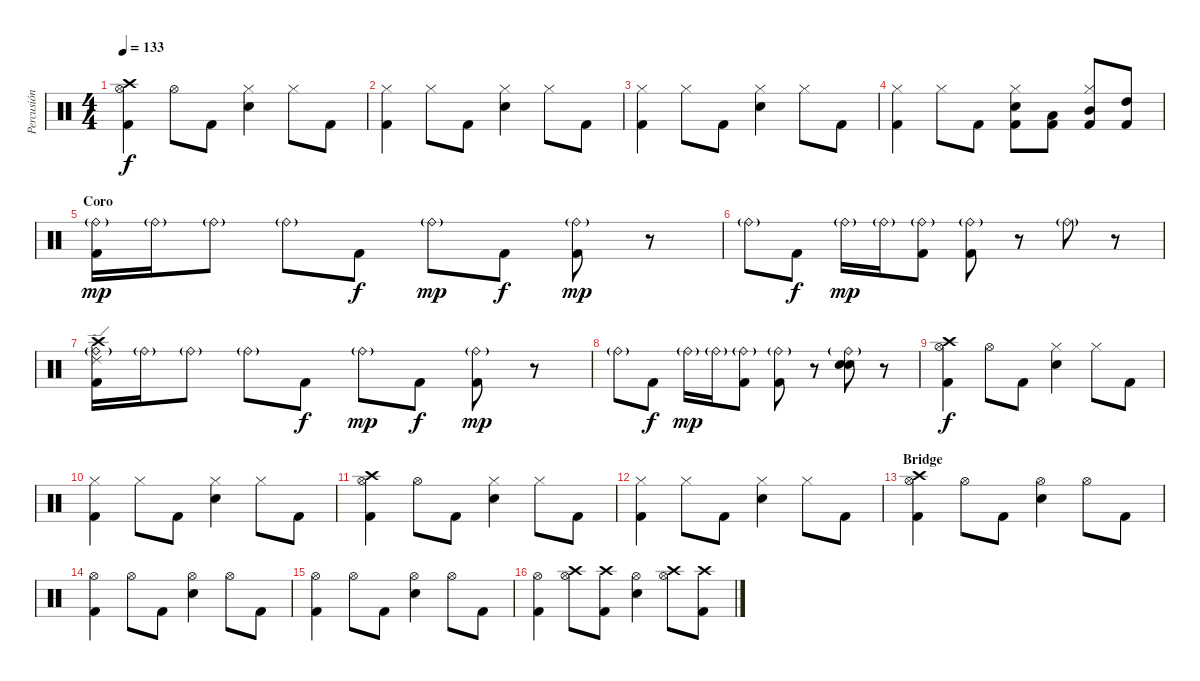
\track ("Percusión" "Percusión") {instrument percussion}
\staff {score}
\articulation defaults
\ts (4 4)
\tempo 133
\clef neutral
\ks c
("Crash high (hit)" "Hi-Hat (open)" "Kick (hit) 2").4{dy f} "Hi-Hat (open)".8 "Kick (hit) 2".8 ("Electric Snare (hit)" "Hi-Hat (closed)").4 "Hi-Hat (closed)".8 "Kick (hit) 2".8 |
("Hi-Hat (closed)" "Kick (hit) 2").4 "Hi-Hat (closed)".8 "Kick (hit) 2".8 ("Electric Snare (hit)" "Hi-Hat (closed)").4 "Hi-Hat (closed)".8 "Kick (hit) 2".8 |
("Hi-Hat (closed)" "Kick (hit) 2").4 "Hi-Hat (closed)".8 "Kick (hit) 2".8 ("Electric Snare (hit)" "Hi-Hat (closed)").4 "Hi-Hat (closed)".8 "Kick (hit) 2".8 |
("Hi-Hat (closed)" "Kick (hit) 2").4 "Hi-Hat (closed)".8 "Kick (hit) 2".8 ("Electric Snare (hit)" "Hi-Hat (closed)" "Kick (hit) 2").8 ("Low Tom (hit)" "Kick (hit) 2").8 ("Mid Tom (hit)" "Hi-Hat (closed)" "Kick (hit) 2").8 ("High Tom (hit)" "Kick (hit) 2").8 |
\section ("" "Coro")
("Ride (bell)"{g} "Kick (hit) 2").16{dy mp} "Ride (bell)"{g}.16 "Ride (bell)"{g}.8 "Ride (bell)"{g}.8 "Kick (hit) 2".8{dy f} "Ride (bell)"{g}.8{dy mp} "Kick (hit) 2".8{dy f} ("Ride (bell)"{g} "Kick (hit) 2").8{dy mp} r.8 |
"Ride (bell)"{g}.8 "Kick (hit) 2".8{dy f} "Ride (bell)"{g}.16{dy mp} "Ride (bell)"{g}.16 ("Ride (bell)"{g} "Kick (hit) 2").8 ("Ride (bell)"{g} "Kick (hit) 2").8 r.8 "Ride (bell)"{g}.8 r.8 |
("Crash high (hit)" "Ride (edge) 2" "Ride (bell)"{g} "Kick (hit) 2").16 "Ride (bell)"{g}.16 "Ride (bell)"{g}.8 "Ride (bell)"{g}.8 "Kick (hit) 2".8{dy f} "Ride (bell)"{g}.8{dy mp} "Kick (hit) 2".8{dy f} ("Ride (bell)"{g} "Kick (hit) 2").8{dy mp} r.8 |
"Ride (bell)"{g}.8 "Kick (hit) 2".8{dy f} "Ride (bell)"{g}.16{dy mp} "Ride (bell)"{g}.16 ("Ride (bell)"{g} "Kick (hit) 2").8 ("Ride (bell)"{g} "Kick (hit) 2").8 r.8 ("Ride (bell)"{g} "Electric Snare (hit)" "Electric Snare (hit)").8 r.8 |
("Crash high (hit)" "Hi-Hat (open)" "Kick (hit) 2").4{dy f} "Hi-Hat (open)".8 "Kick (hit) 2".8 ("Electric Snare (hit)" "Hi-Hat (closed)").4 "Hi-Hat (closed)".8 "Kick (hit) 2".8 |
("Hi-Hat (closed)" "Kick (hit) 2").4 "Hi-Hat (closed)".8 "Kick (hit) 2".8 ("Electric Snare (hit)" "Hi-Hat (closed)").4 "Hi-Hat (closed)".8 "Kick (hit) 2".8 |
("Crash high (hit)" "Hi-Hat (open)" "Kick (hit) 2").4 "Hi-Hat (open)".8 "Kick (hit) 2".8 ("Electric Snare (hit)" "Hi-Hat (closed)").4 "Hi-Hat (closed)".8 "Kick (hit) 2".8 |
("Hi-Hat (closed)" "Kick (hit) 2").4 "Hi-Hat (closed)".8 "Kick (hit) 2".8 ("Electric Snare (hit)" "Hi-Hat (closed)").4 "Hi-Hat (closed)".8 "Kick (hit) 2".8 |
\section ("" "Bridge")
("Crash high (hit)" "Hi-Hat (open)" "Kick (hit) 2").4 "Hi-Hat (open)".8 "Kick (hit) 2".8 ("Electric Snare (hit)" "Hi-Hat (open)").4 "Hi-Hat (open)".8 "Kick (hit) 2".8 |
("Hi-Hat (open)" "Kick (hit) 2").4 "Hi-Hat (open)".8 "Kick (hit) 2".8 ("Electric Snare (hit)" "Hi-Hat (open)").4 "Hi-Hat (open)".8 "Kick (hit) 2".8 |
("Hi-Hat (open)" "Kick (hit) 2").4 "Hi-Hat (open)".8 "Kick (hit) 2".8 ("Electric Snare (hit)" "Hi-Hat (open)").4 "Hi-Hat (open)".8 "Kick (hit) 2".8 |
("Hi-Hat (open)" "Kick (hit) 2").4 ("Crash high (hit)" "Hi-Hat (open)").8 ("Crash high (hit)" "Kick (hit) 2").8 ("Electric Snare (hit)" "Hi-Hat (open)").4 ("Crash high (hit)" "Hi-Hat (open)").8 ("Crash high (hit)" "Kick (hit) 2").8
